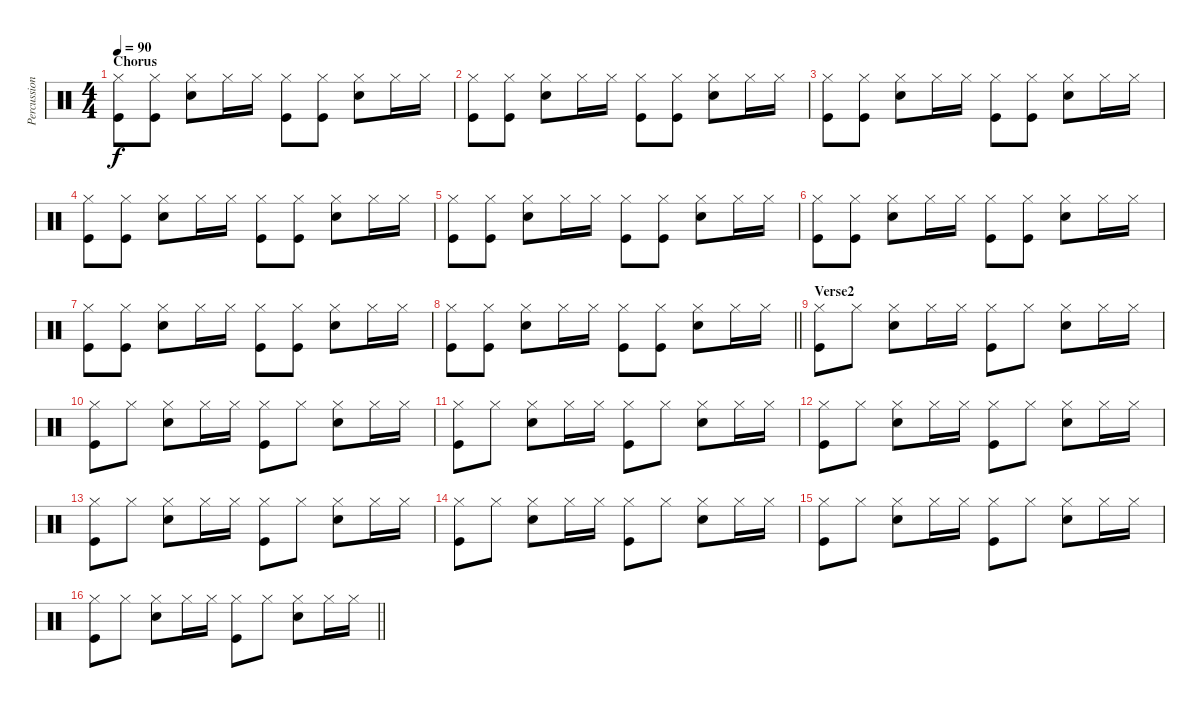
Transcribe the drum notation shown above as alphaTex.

\track ("Percussion" "Percussion") {instrument percussion}
\staff {score}
\articulation defaults
\ts (4 4)
\section ("" "Chorus")
\tempo 90
\clef neutral
\ks c
("Hi-Hat (closed)" "Kick (hit)").8{dy f} ("Hi-Hat (closed)" "Kick (hit)").8 ("Hi-Hat (closed)" "Snare (hit) 2").8 "Hi-Hat (closed)".16 "Hi-Hat (closed)".16 ("Hi-Hat (closed)" "Kick (hit)").8 ("Hi-Hat (closed)" "Kick (hit)").8 ("Hi-Hat (closed)" "Snare (hit) 2").8 "Hi-Hat (closed)".16 "Hi-Hat (closed)".16 |
("Hi-Hat (closed)" "Kick (hit)").8 ("Hi-Hat (closed)" "Kick (hit)").8 ("Hi-Hat (closed)" "Snare (hit) 2").8 "Hi-Hat (closed)".16 "Hi-Hat (closed)".16 ("Hi-Hat (closed)" "Kick (hit)").8 ("Hi-Hat (closed)" "Kick (hit)").8 ("Hi-Hat (closed)" "Snare (hit) 2").8 "Hi-Hat (closed)".16 "Hi-Hat (closed)".16 |
("Hi-Hat (closed)" "Kick (hit)").8 ("Hi-Hat (closed)" "Kick (hit)").8 ("Hi-Hat (closed)" "Snare (hit) 2").8 "Hi-Hat (closed)".16 "Hi-Hat (closed)".16 ("Hi-Hat (closed)" "Kick (hit)").8 ("Hi-Hat (closed)" "Kick (hit)").8 ("Hi-Hat (closed)" "Snare (hit) 2").8 "Hi-Hat (closed)".16 "Hi-Hat (closed)".16 |
("Hi-Hat (closed)" "Kick (hit)").8 ("Hi-Hat (closed)" "Kick (hit)").8 ("Hi-Hat (closed)" "Snare (hit) 2").8 "Hi-Hat (closed)".16 "Hi-Hat (closed)".16 ("Hi-Hat (closed)" "Kick (hit)").8 ("Hi-Hat (closed)" "Kick (hit)").8 ("Hi-Hat (closed)" "Snare (hit) 2").8 "Hi-Hat (closed)".16 "Hi-Hat (closed)".16 |
("Hi-Hat (closed)" "Kick (hit)").8 ("Hi-Hat (closed)" "Kick (hit)").8 ("Hi-Hat (closed)" "Snare (hit) 2").8 "Hi-Hat (closed)".16 "Hi-Hat (closed)".16 ("Hi-Hat (closed)" "Kick (hit)").8 ("Hi-Hat (closed)" "Kick (hit)").8 ("Hi-Hat (closed)" "Snare (hit) 2").8 "Hi-Hat (closed)".16 "Hi-Hat (closed)".16 |
("Hi-Hat (closed)" "Kick (hit)").8 ("Hi-Hat (closed)" "Kick (hit)").8 ("Hi-Hat (closed)" "Snare (hit) 2").8 "Hi-Hat (closed)".16 "Hi-Hat (closed)".16 ("Hi-Hat (closed)" "Kick (hit)").8 ("Hi-Hat (closed)" "Kick (hit)").8 ("Hi-Hat (closed)" "Snare (hit) 2").8 "Hi-Hat (closed)".16 "Hi-Hat (closed)".16 |
("Hi-Hat (closed)" "Kick (hit)").8 ("Hi-Hat (closed)" "Kick (hit)").8 ("Hi-Hat (closed)" "Snare (hit) 2").8 "Hi-Hat (closed)".16 "Hi-Hat (closed)".16 ("Hi-Hat (closed)" "Kick (hit)").8 ("Hi-Hat (closed)" "Kick (hit)").8 ("Hi-Hat (closed)" "Snare (hit) 2").8 "Hi-Hat (closed)".16 "Hi-Hat (closed)".16 |
\barLineRight lightlight
("Hi-Hat (closed)" "Kick (hit)").8 ("Hi-Hat (closed)" "Kick (hit)").8 ("Hi-Hat (closed)" "Snare (hit) 2").8 "Hi-Hat (closed)".16 "Hi-Hat (closed)".16 ("Hi-Hat (closed)" "Kick (hit)").8 ("Hi-Hat (closed)" "Kick (hit)").8 ("Hi-Hat (closed)" "Snare (hit) 2").8 "Hi-Hat (closed)".16 "Hi-Hat (closed)".16 |
\section ("" "Verse2")
("Hi-Hat (closed)" "Kick (hit)").8 "Hi-Hat (closed)".8 ("Hi-Hat (closed)" "Snare (hit) 2").8 "Hi-Hat (closed)".16 "Hi-Hat (closed)".16 ("Hi-Hat (closed)" "Kick (hit)").8 "Hi-Hat (closed)".8 ("Hi-Hat (closed)" "Snare (hit) 2").8 "Hi-Hat (closed)".16 "Hi-Hat (closed)".16 |
("Hi-Hat (closed)" "Kick (hit)").8 "Hi-Hat (closed)".8 ("Hi-Hat (closed)" "Snare (hit) 2").8 "Hi-Hat (closed)".16 "Hi-Hat (closed)".16 ("Hi-Hat (closed)" "Kick (hit)").8 "Hi-Hat (closed)".8 ("Hi-Hat (closed)" "Snare (hit) 2").8 "Hi-Hat (closed)".16 "Hi-Hat (closed)".16 |
("Hi-Hat (closed)" "Kick (hit)").8 "Hi-Hat (closed)".8 ("Hi-Hat (closed)" "Snare (hit) 2").8 "Hi-Hat (closed)".16 "Hi-Hat (closed)".16 ("Hi-Hat (closed)" "Kick (hit)").8 "Hi-Hat (closed)".8 ("Hi-Hat (closed)" "Snare (hit) 2").8 "Hi-Hat (closed)".16 "Hi-Hat (closed)".16 |
("Hi-Hat (closed)" "Kick (hit)").8 "Hi-Hat (closed)".8 ("Hi-Hat (closed)" "Snare (hit) 2").8 "Hi-Hat (closed)".16 "Hi-Hat (closed)".16 ("Hi-Hat (closed)" "Kick (hit)").8 "Hi-Hat (closed)".8 ("Hi-Hat (closed)" "Snare (hit) 2").8 "Hi-Hat (closed)".16 "Hi-Hat (closed)".16 |
("Hi-Hat (closed)" "Kick (hit)").8 "Hi-Hat (closed)".8 ("Hi-Hat (closed)" "Snare (hit) 2").8 "Hi-Hat (closed)".16 "Hi-Hat (closed)".16 ("Hi-Hat (closed)" "Kick (hit)").8 "Hi-Hat (closed)".8 ("Hi-Hat (closed)" "Snare (hit) 2").8 "Hi-Hat (closed)".16 "Hi-Hat (closed)".16 |
("Hi-Hat (closed)" "Kick (hit)").8 "Hi-Hat (closed)".8 ("Hi-Hat (closed)" "Snare (hit) 2").8 "Hi-Hat (closed)".16 "Hi-Hat (closed)".16 ("Hi-Hat (closed)" "Kick (hit)").8 "Hi-Hat (closed)".8 ("Hi-Hat (closed)" "Snare (hit) 2").8 "Hi-Hat (closed)".16 "Hi-Hat (closed)".16 |
("Hi-Hat (closed)" "Kick (hit)").8 "Hi-Hat (closed)".8 ("Hi-Hat (closed)" "Snare (hit) 2").8 "Hi-Hat (closed)".16 "Hi-Hat (closed)".16 ("Hi-Hat (closed)" "Kick (hit)").8 "Hi-Hat (closed)".8 ("Hi-Hat (closed)" "Snare (hit) 2").8 "Hi-Hat (closed)".16 "Hi-Hat (closed)".16 |
\barLineRight lightlight
("Hi-Hat (closed)" "Kick (hit)").8 "Hi-Hat (closed)".8 ("Hi-Hat (closed)" "Snare (hit) 2").8 "Hi-Hat (closed)".16 "Hi-Hat (closed)".16 ("Hi-Hat (closed)" "Kick (hit)").8 "Hi-Hat (closed)".8 ("Hi-Hat (closed)" "Snare (hit) 2").8 "Hi-Hat (closed)".16 "Hi-Hat (closed)".16
